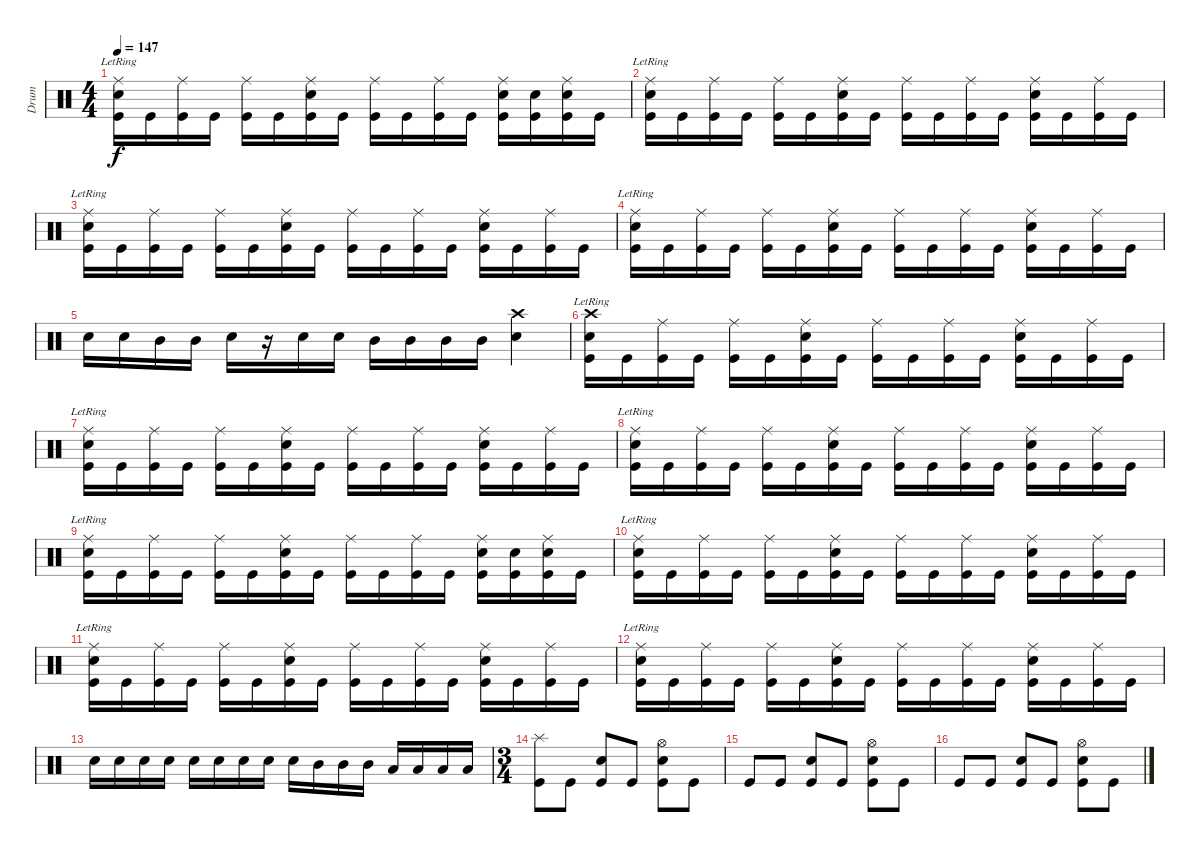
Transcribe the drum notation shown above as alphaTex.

\track ("Drum" "Drum") {instrument percussion}
\staff {score}
\articulation defaults
\ts (4 4)
\tempo 147
\clef neutral
\ks c
("Ride (middle)"{lr} "Snare (hit) 2" "Kick (hit)").16{dy f} "Kick (hit)".16 ("Ride (middle)" "Kick (hit)").16 "Kick (hit)".16 ("Ride (middle)" "Kick (hit)").16 "Kick (hit)".16 ("Ride (middle)" "Snare (hit) 2" "Kick (hit)").16 "Kick (hit)".16 ("Ride (middle)" "Kick (hit)").16 "Kick (hit)".16 ("Ride (middle)" "Kick (hit)").16 "Kick (hit)".16 ("Ride (middle)" "Snare (hit) 2" "Kick (hit)").16 ("Snare (hit) 2" "Kick (hit)").16 ("Ride (middle)" "Snare (hit) 2" "Kick (hit)").16 "Kick (hit)".16 |
("Ride (middle)"{lr} "Snare (hit) 2" "Kick (hit)").16 "Kick (hit)".16 ("Ride (middle)" "Kick (hit)").16 "Kick (hit)".16 ("Ride (middle)" "Kick (hit)").16 "Kick (hit)".16 ("Ride (middle)" "Snare (hit) 2" "Kick (hit)").16 "Kick (hit)".16 ("Ride (middle)" "Kick (hit)").16 "Kick (hit)".16 ("Ride (middle)" "Kick (hit)").16 "Kick (hit)".16 ("Ride (middle)" "Snare (hit) 2" "Kick (hit)").16 "Kick (hit)".16 ("Ride (middle)" "Kick (hit)").16 "Kick (hit)".16 |
("Ride (middle)"{lr} "Snare (hit) 2" "Kick (hit)").16 "Kick (hit)".16 ("Ride (middle)" "Kick (hit)").16 "Kick (hit)".16 ("Ride (middle)" "Kick (hit)").16 "Kick (hit)".16 ("Ride (middle)" "Snare (hit) 2" "Kick (hit)").16 "Kick (hit)".16 ("Ride (middle)" "Kick (hit)").16 "Kick (hit)".16 ("Ride (middle)" "Kick (hit)").16 "Kick (hit)".16 ("Ride (middle)" "Snare (hit) 2" "Kick (hit)").16 "Kick (hit)".16 ("Ride (middle)" "Kick (hit)").16 "Kick (hit)".16 |
("Ride (middle)"{lr} "Snare (hit) 2" "Kick (hit)").16 "Kick (hit)".16 ("Ride (middle)" "Kick (hit)").16 "Kick (hit)".16 ("Ride (middle)" "Kick (hit)").16 "Kick (hit)".16 ("Ride (middle)" "Snare (hit) 2" "Kick (hit)").16 "Kick (hit)".16 ("Ride (middle)" "Kick (hit)").16 "Kick (hit)".16 ("Ride (middle)" "Kick (hit)").16 "Kick (hit)".16 ("Ride (middle)" "Snare (hit) 2" "Kick (hit)").16 "Kick (hit)".16 ("Ride (middle)" "Kick (hit)").16 "Kick (hit)".16 |
"Snare (hit) 2".16 "Snare (hit) 2".16 "Mid Tom (hit)".16 "Mid Tom (hit)".16 "Snare (hit) 2".16 r.16 "Snare (hit) 2".16 "Snare (hit) 2".16 "Mid Tom (hit)".16 "Mid Tom (hit)".16 "Mid Tom (hit)".16 "Mid Tom (hit)".16 ("Crash high (hit)" "Snare (hit) 2").4 |
("Crash high (hit)"{lr} "Snare (hit) 2" "Kick (hit)").16 "Kick (hit)".16 ("Ride (middle)" "Kick (hit)").16 "Kick (hit)".16 ("Ride (middle)" "Kick (hit)").16 "Kick (hit)".16 ("Ride (middle)" "Snare (hit) 2" "Kick (hit)").16 "Kick (hit)".16 ("Ride (middle)" "Kick (hit)").16 "Kick (hit)".16 ("Ride (middle)" "Kick (hit)").16 "Kick (hit)".16 ("Ride (middle)" "Snare (hit) 2" "Kick (hit)").16 "Kick (hit)".16 ("Ride (middle)" "Kick (hit)").16 "Kick (hit)".16 |
("Ride (middle)"{lr} "Snare (hit) 2" "Kick (hit)").16 "Kick (hit)".16 ("Ride (middle)" "Kick (hit)").16 "Kick (hit)".16 ("Ride (middle)" "Kick (hit)").16 "Kick (hit)".16 ("Ride (middle)" "Snare (hit) 2" "Kick (hit)").16 "Kick (hit)".16 ("Ride (middle)" "Kick (hit)").16 "Kick (hit)".16 ("Ride (middle)" "Kick (hit)").16 "Kick (hit)".16 ("Ride (middle)" "Snare (hit) 2" "Kick (hit)").16 "Kick (hit)".16 ("Ride (middle)" "Kick (hit)").16 "Kick (hit)".16 |
("Ride (middle)"{lr} "Snare (hit) 2" "Kick (hit)").16 "Kick (hit)".16 ("Ride (middle)" "Kick (hit)").16 "Kick (hit)".16 ("Ride (middle)" "Kick (hit)").16 "Kick (hit)".16 ("Ride (middle)" "Snare (hit) 2" "Kick (hit)").16 "Kick (hit)".16 ("Ride (middle)" "Kick (hit)").16 "Kick (hit)".16 ("Ride (middle)" "Kick (hit)").16 "Kick (hit)".16 ("Ride (middle)" "Snare (hit) 2" "Kick (hit)").16 "Kick (hit)".16 ("Ride (middle)" "Kick (hit)").16 "Kick (hit)".16 |
("Ride (middle)"{lr} "Snare (hit) 2" "Kick (hit)").16 "Kick (hit)".16 ("Ride (middle)" "Kick (hit)").16 "Kick (hit)".16 ("Ride (middle)" "Kick (hit)").16 "Kick (hit)".16 ("Ride (middle)" "Snare (hit) 2" "Kick (hit)").16 "Kick (hit)".16 ("Ride (middle)" "Kick (hit)").16 "Kick (hit)".16 ("Ride (middle)" "Kick (hit)").16 "Kick (hit)".16 ("Ride (middle)" "Snare (hit) 2" "Kick (hit)").16 ("Snare (hit) 2" "Kick (hit)").16 ("Ride (middle)" "Snare (hit) 2" "Kick (hit)").16 "Kick (hit)".16 |
("Ride (middle)"{lr} "Snare (hit) 2" "Kick (hit)").16 "Kick (hit)".16 ("Ride (middle)" "Kick (hit)").16 "Kick (hit)".16 ("Ride (middle)" "Kick (hit)").16 "Kick (hit)".16 ("Ride (middle)" "Snare (hit) 2" "Kick (hit)").16 "Kick (hit)".16 ("Ride (middle)" "Kick (hit)").16 "Kick (hit)".16 ("Ride (middle)" "Kick (hit)").16 "Kick (hit)".16 ("Ride (middle)" "Snare (hit) 2" "Kick (hit)").16 "Kick (hit)".16 ("Ride (middle)" "Kick (hit)").16 "Kick (hit)".16 |
("Ride (middle)"{lr} "Snare (hit) 2" "Kick (hit)").16 "Kick (hit)".16 ("Ride (middle)" "Kick (hit)").16 "Kick (hit)".16 ("Ride (middle)" "Kick (hit)").16 "Kick (hit)".16 ("Ride (middle)" "Snare (hit) 2" "Kick (hit)").16 "Kick (hit)".16 ("Ride (middle)" "Kick (hit)").16 "Kick (hit)".16 ("Ride (middle)" "Kick (hit)").16 "Kick (hit)".16 ("Ride (middle)" "Snare (hit) 2" "Kick (hit)").16 "Kick (hit)".16 ("Ride (middle)" "Kick (hit)").16 "Kick (hit)".16 |
("Ride (middle)"{lr} "Snare (hit) 2" "Kick (hit)").16 "Kick (hit)".16 ("Ride (middle)" "Kick (hit)").16 "Kick (hit)".16 ("Ride (middle)" "Kick (hit)").16 "Kick (hit)".16 ("Ride (middle)" "Snare (hit) 2" "Kick (hit)").16 "Kick (hit)".16 ("Ride (middle)" "Kick (hit)").16 "Kick (hit)".16 ("Ride (middle)" "Kick (hit)").16 "Kick (hit)".16 ("Ride (middle)" "Snare (hit) 2" "Kick (hit)").16 "Kick (hit)".16 ("Ride (middle)" "Kick (hit)").16 "Kick (hit)".16 |
"Snare (hit) 2".16 "Snare (hit) 2".16 "Snare (hit) 2".16 "Snare (hit) 2".16 "Snare (hit) 2".16 "Snare (hit) 2".16 "Snare (hit) 2".16 "Snare (hit) 2".16 "Snare (hit) 2".16 "Mid Tom (hit)".16 "Mid Tom (hit)".16 "Mid Tom (hit)".16 "Low Tom (hit)".16 "Low Tom (hit)".16 "Low Tom (hit)".16 "Low Tom (hit)".16 |
\ts (3 4)
("Splash (hit)" "Kick (hit)").8 "Kick (hit)".8 ("Snare (hit) 2" "Kick (hit)").8 "Kick (hit)".8 ("Hi-Hat (open)" "Snare (hit) 2" "Kick (hit)").8 "Kick (hit)".8 |
"Kick (hit)".8 "Kick (hit)".8 ("Snare (hit) 2" "Kick (hit)").8 "Kick (hit)".8 ("Hi-Hat (open)" "Snare (hit) 2" "Kick (hit)").8 "Kick (hit)".8 |
"Kick (hit)".8 "Kick (hit)".8 ("Snare (hit) 2" "Kick (hit)").8 "Kick (hit)".8 ("Hi-Hat (open)" "Snare (hit) 2" "Kick (hit)").8 "Kick (hit)".8
